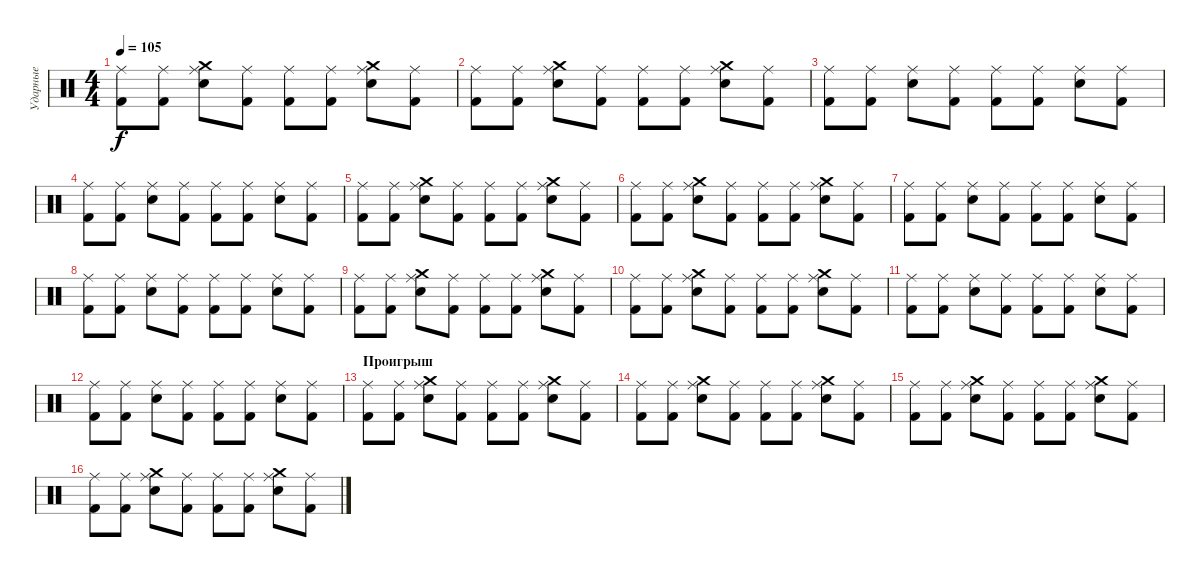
\track ("Ударные" "Ударные") {instrument percussion}
\staff {score}
\articulation defaults
\ts (4 4)
\tempo 105
\clef neutral
\ks c
("Ride (middle)" "Kick (hit) 2").8{dy f} ("Ride (middle)" "Kick (hit) 2").8 ("Crash medium (hit)" "Ride (middle)" "Electric Snare (hit)").8 ("Ride (middle)" "Kick (hit) 2").8 ("Ride (middle)" "Kick (hit) 2").8 ("Ride (middle)" "Kick (hit) 2").8 ("Crash medium (hit)" "Ride (middle)" "Electric Snare (hit)").8 ("Ride (middle)" "Kick (hit) 2").8 |
("Ride (middle)" "Kick (hit) 2").8 ("Ride (middle)" "Kick (hit) 2").8 ("Crash medium (hit)" "Ride (middle)" "Electric Snare (hit)").8 ("Ride (middle)" "Kick (hit) 2").8 ("Ride (middle)" "Kick (hit) 2").8 ("Ride (middle)" "Kick (hit) 2").8 ("Crash medium (hit)" "Ride (middle)" "Electric Snare (hit)").8 ("Ride (middle)" "Kick (hit) 2").8 |
("Ride (middle)" "Kick (hit) 2").8 ("Ride (middle)" "Kick (hit) 2").8 ("Ride (middle)" "Electric Snare (hit)").8 ("Ride (middle)" "Kick (hit) 2").8 ("Ride (middle)" "Kick (hit) 2").8 ("Ride (middle)" "Kick (hit) 2").8 ("Ride (middle)" "Electric Snare (hit)").8 ("Ride (middle)" "Kick (hit) 2").8 |
("Ride (middle)" "Kick (hit) 2").8 ("Ride (middle)" "Kick (hit) 2").8 ("Ride (middle)" "Electric Snare (hit)").8 ("Ride (middle)" "Kick (hit) 2").8 ("Ride (middle)" "Kick (hit) 2").8 ("Ride (middle)" "Kick (hit) 2").8 ("Ride (middle)" "Electric Snare (hit)").8 ("Ride (middle)" "Kick (hit) 2").8 |
("Ride (middle)" "Kick (hit) 2").8 ("Ride (middle)" "Kick (hit) 2").8 ("Crash medium (hit)" "Ride (middle)" "Electric Snare (hit)").8 ("Ride (middle)" "Kick (hit) 2").8 ("Ride (middle)" "Kick (hit) 2").8 ("Ride (middle)" "Kick (hit) 2").8 ("Crash medium (hit)" "Ride (middle)" "Electric Snare (hit)").8 ("Ride (middle)" "Kick (hit) 2").8 |
("Ride (middle)" "Kick (hit) 2").8 ("Ride (middle)" "Kick (hit) 2").8 ("Crash medium (hit)" "Ride (middle)" "Electric Snare (hit)").8 ("Ride (middle)" "Kick (hit) 2").8 ("Ride (middle)" "Kick (hit) 2").8 ("Ride (middle)" "Kick (hit) 2").8 ("Crash medium (hit)" "Ride (middle)" "Electric Snare (hit)").8 ("Ride (middle)" "Kick (hit) 2").8 |
("Ride (middle)" "Kick (hit) 2").8 ("Ride (middle)" "Kick (hit) 2").8 ("Ride (middle)" "Electric Snare (hit)").8 ("Ride (middle)" "Kick (hit) 2").8 ("Ride (middle)" "Kick (hit) 2").8 ("Ride (middle)" "Kick (hit) 2").8 ("Ride (middle)" "Electric Snare (hit)").8 ("Ride (middle)" "Kick (hit) 2").8 |
("Ride (middle)" "Kick (hit) 2").8 ("Ride (middle)" "Kick (hit) 2").8 ("Ride (middle)" "Electric Snare (hit)").8 ("Ride (middle)" "Kick (hit) 2").8 ("Ride (middle)" "Kick (hit) 2").8 ("Ride (middle)" "Kick (hit) 2").8 ("Ride (middle)" "Electric Snare (hit)").8 ("Ride (middle)" "Kick (hit) 2").8 |
("Ride (middle)" "Kick (hit) 2").8 ("Ride (middle)" "Kick (hit) 2").8 ("Crash medium (hit)" "Ride (middle)" "Electric Snare (hit)").8 ("Ride (middle)" "Kick (hit) 2").8 ("Ride (middle)" "Kick (hit) 2").8 ("Ride (middle)" "Kick (hit) 2").8 ("Crash medium (hit)" "Ride (middle)" "Electric Snare (hit)").8 ("Ride (middle)" "Kick (hit) 2").8 |
("Ride (middle)" "Kick (hit) 2").8 ("Ride (middle)" "Kick (hit) 2").8 ("Crash medium (hit)" "Ride (middle)" "Electric Snare (hit)").8 ("Ride (middle)" "Kick (hit) 2").8 ("Ride (middle)" "Kick (hit) 2").8 ("Ride (middle)" "Kick (hit) 2").8 ("Crash medium (hit)" "Ride (middle)" "Electric Snare (hit)").8 ("Ride (middle)" "Kick (hit) 2").8 |
("Ride (middle)" "Kick (hit) 2").8 ("Ride (middle)" "Kick (hit) 2").8 ("Ride (middle)" "Electric Snare (hit)").8 ("Ride (middle)" "Kick (hit) 2").8 ("Ride (middle)" "Kick (hit) 2").8 ("Ride (middle)" "Kick (hit) 2").8 ("Ride (middle)" "Electric Snare (hit)").8 ("Ride (middle)" "Kick (hit) 2").8 |
("Ride (middle)" "Kick (hit) 2").8 ("Ride (middle)" "Kick (hit) 2").8 ("Ride (middle)" "Electric Snare (hit)").8 ("Ride (middle)" "Kick (hit) 2").8 ("Ride (middle)" "Kick (hit) 2").8 ("Ride (middle)" "Kick (hit) 2").8 ("Ride (middle)" "Electric Snare (hit)").8 ("Ride (middle)" "Kick (hit) 2").8 |
\section ("" "Проигрыш")
("Ride (middle)" "Kick (hit) 2").8 ("Ride (middle)" "Kick (hit) 2").8 ("Crash medium (hit)" "Ride (middle)" "Electric Snare (hit)").8 ("Ride (middle)" "Kick (hit) 2").8 ("Ride (middle)" "Kick (hit) 2").8 ("Ride (middle)" "Kick (hit) 2").8 ("Crash medium (hit)" "Ride (middle)" "Electric Snare (hit)").8 ("Ride (middle)" "Kick (hit) 2").8 |
("Ride (middle)" "Kick (hit) 2").8 ("Ride (middle)" "Kick (hit) 2").8 ("Crash medium (hit)" "Ride (middle)" "Electric Snare (hit)").8 ("Ride (middle)" "Kick (hit) 2").8 ("Ride (middle)" "Kick (hit) 2").8 ("Ride (middle)" "Kick (hit) 2").8 ("Crash medium (hit)" "Ride (middle)" "Electric Snare (hit)").8 ("Ride (middle)" "Kick (hit) 2").8 |
("Ride (middle)" "Kick (hit) 2").8 ("Ride (middle)" "Kick (hit) 2").8 ("Crash medium (hit)" "Ride (middle)" "Electric Snare (hit)").8 ("Ride (middle)" "Kick (hit) 2").8 ("Ride (middle)" "Kick (hit) 2").8 ("Ride (middle)" "Kick (hit) 2").8 ("Crash medium (hit)" "Ride (middle)" "Electric Snare (hit)").8 ("Ride (middle)" "Kick (hit) 2").8 |
("Ride (middle)" "Kick (hit) 2").8 ("Ride (middle)" "Kick (hit) 2").8 ("Crash medium (hit)" "Ride (middle)" "Electric Snare (hit)").8 ("Ride (middle)" "Kick (hit) 2").8 ("Ride (middle)" "Kick (hit) 2").8 ("Ride (middle)" "Kick (hit) 2").8 ("Crash medium (hit)" "Ride (middle)" "Electric Snare (hit)").8 ("Ride (middle)" "Kick (hit) 2").8
